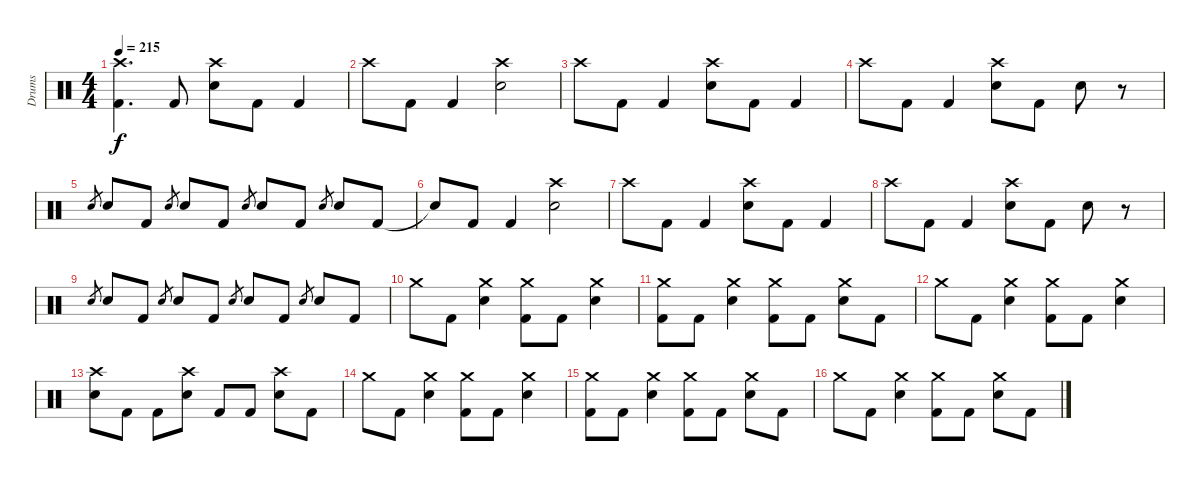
\track ("Drums" "Drums") {instrument percussion}
\staff {score}
\articulation defaults
\ts (4 4)
\tempo 215
\clef neutral
\ks c
("Crash high (hit)" "Kick (hit) 2").4{d dy f} "Kick (hit) 2".8 ("Crash high (hit)" "Electric Snare (hit)").8 "Kick (hit) 2".8 "Kick (hit) 2".4 |
"Crash high (hit)".8 "Kick (hit) 2".8 "Kick (hit) 2".4 ("Crash high (hit)" "Electric Snare (hit)").2 |
"Crash high (hit)".8 "Kick (hit) 2".8 "Kick (hit) 2".4 ("Crash high (hit)" "Electric Snare (hit)").8 "Kick (hit) 2".8 "Kick (hit) 2".4 |
"Crash high (hit)".8 "Kick (hit) 2".8 "Kick (hit) 2".4 ("Crash high (hit)" "Electric Snare (hit)").8 "Kick (hit) 2".8 "Electric Snare (hit)".8 r.8 |
"Electric Snare (hit)".8{gr} "Electric Snare (hit)".8 "Kick (hit) 2".8 "Electric Snare (hit)".8{gr} "Electric Snare (hit)".8 "Kick (hit) 2".8 "Electric Snare (hit)".8{gr} "Electric Snare (hit)".8 "Kick (hit) 2".8 "Electric Snare (hit)".8{gr} "Electric Snare (hit)".8 "Kick (hit) 2".8 |
"Snare (hit)"{t}.8 "Kick (hit) 2".8 "Kick (hit) 2".4 ("Crash high (hit)" "Electric Snare (hit)").2 |
"Crash high (hit)".8 "Kick (hit) 2".8 "Kick (hit) 2".4 ("Crash high (hit)" "Electric Snare (hit)").8 "Kick (hit) 2".8 "Kick (hit) 2".4 |
"Crash high (hit)".8 "Kick (hit) 2".8 "Kick (hit) 2".4 ("Crash high (hit)" "Electric Snare (hit)").8 "Kick (hit) 2".8 "Electric Snare (hit)".8 r.8 |
"Electric Snare (hit)".8{gr} "Electric Snare (hit)".8 "Kick (hit) 2".8 "Electric Snare (hit)".8{gr} "Electric Snare (hit)".8 "Kick (hit) 2".8 "Electric Snare (hit)".8{gr} "Electric Snare (hit)".8 "Kick (hit) 2".8 "Electric Snare (hit)".8{gr} "Electric Snare (hit)".8 "Kick (hit) 2".8 |
"Crash medium (hit)".8 "Kick (hit) 2".8 ("Crash medium (hit)" "Electric Snare (hit)").4 ("Crash medium (hit)" "Kick (hit) 2").8 "Kick (hit) 2".8 ("Crash medium (hit)" "Electric Snare (hit)").4 |
("Crash medium (hit)" "Kick (hit) 2").8 "Kick (hit) 2".8 ("Crash medium (hit)" "Electric Snare (hit)").4 ("Crash medium (hit)" "Kick (hit) 2").8 "Kick (hit) 2".8 ("Crash medium (hit)" "Electric Snare (hit)").8 "Kick (hit) 2".8 |
"Crash medium (hit)".8 "Kick (hit) 2".8 ("Crash medium (hit)" "Electric Snare (hit)").4 ("Crash medium (hit)" "Kick (hit) 2").8 "Kick (hit) 2".8 ("Crash medium (hit)" "Electric Snare (hit)").4 |
("Crash high (hit)" "Electric Snare (hit)").8 "Kick (hit) 2".8 "Kick (hit) 2".8 ("Crash high (hit)" "Electric Snare (hit)").8 "Kick (hit) 2".8 "Kick (hit) 2".8 ("Crash high (hit)" "Electric Snare (hit)").8 "Kick (hit) 2".8 |
"Crash medium (hit)".8 "Kick (hit) 2".8 ("Crash medium (hit)" "Electric Snare (hit)").4 ("Crash medium (hit)" "Kick (hit) 2").8 "Kick (hit) 2".8 ("Crash medium (hit)" "Electric Snare (hit)").4 |
("Crash medium (hit)" "Kick (hit) 2").8 "Kick (hit) 2".8 ("Crash medium (hit)" "Electric Snare (hit)").4 ("Crash medium (hit)" "Kick (hit) 2").8 "Kick (hit) 2".8 ("Crash medium (hit)" "Electric Snare (hit)").8 "Kick (hit) 2".8 |
"Crash medium (hit)".8 "Kick (hit) 2".8 ("Crash medium (hit)" "Electric Snare (hit)").4 ("Crash medium (hit)" "Kick (hit) 2").8 "Kick (hit) 2".8 ("Crash medium (hit)" "Electric Snare (hit)").8 "Kick (hit) 2".8
